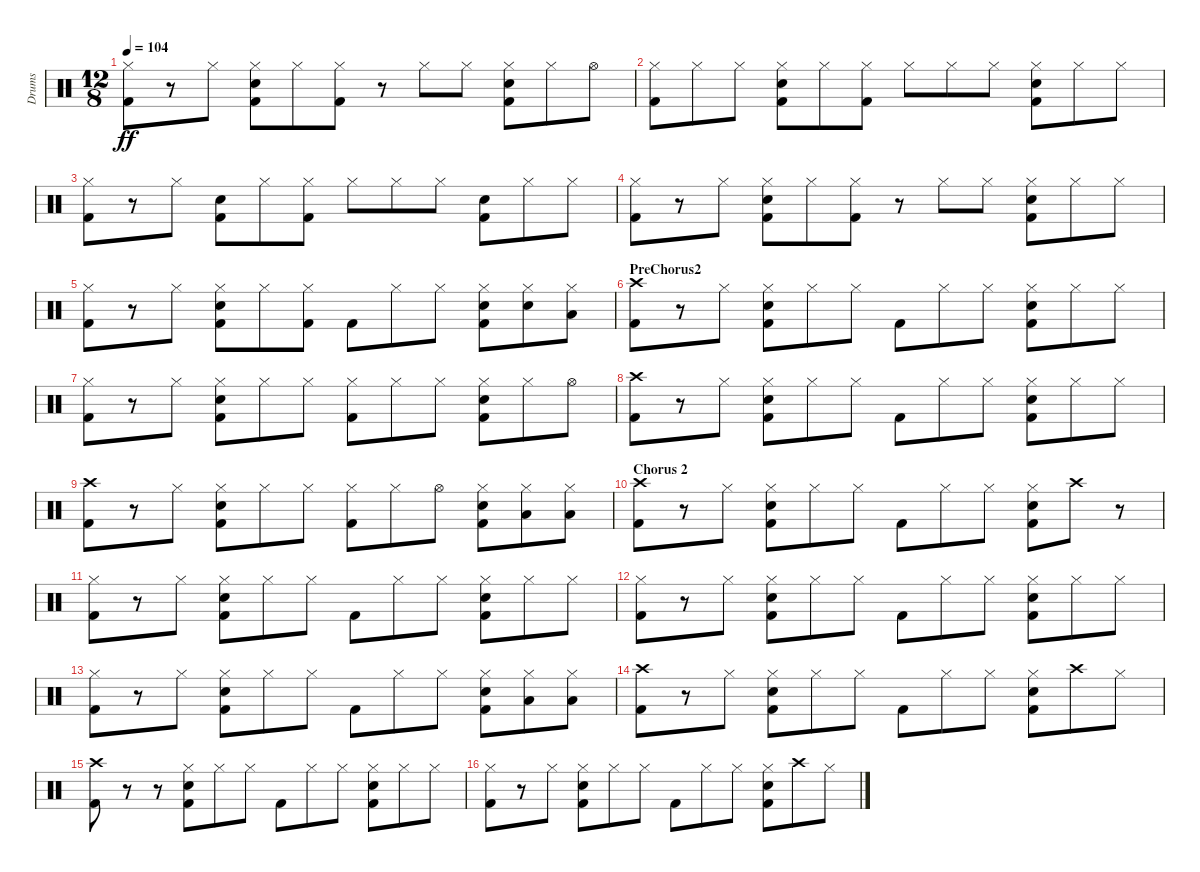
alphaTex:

\track ("Drums" "Drums") {instrument percussion}
\staff {score}
\articulation defaults
\ts (12 8)
\tempo 104
\clef neutral
\ks c
("Hi-Hat (closed)" "Kick (hit) 2").8{dy ff} r.8 "Hi-Hat (closed)".8 ("Hi-Hat (closed)" "Snare (hit) 2" "Kick (hit) 2").8 "Hi-Hat (closed)".8 ("Hi-Hat (closed)" "Kick (hit) 2").8 r.8 "Hi-Hat (closed)".8 "Hi-Hat (closed)".8 ("Hi-Hat (closed)" "Snare (hit) 2" "Kick (hit) 2").8 "Hi-Hat (closed)".8 "Hi-Hat (open)".8 |
("Hi-Hat (closed)" "Kick (hit) 2").8 "Hi-Hat (closed)".8 "Hi-Hat (closed)".8 ("Hi-Hat (closed)" "Snare (hit) 2" "Kick (hit) 2").8 "Hi-Hat (closed)".8 ("Hi-Hat (closed)" "Kick (hit) 2").8 "Hi-Hat (closed)".8 "Hi-Hat (closed)".8 "Hi-Hat (closed)".8 ("Hi-Hat (closed)" "Snare (hit) 2" "Kick (hit) 2").8 "Hi-Hat (closed)".8 "Hi-Hat (closed)".8 |
("Hi-Hat (closed)" "Kick (hit) 2").8 r.8 "Hi-Hat (closed)".8 ("Snare (hit) 2" "Kick (hit) 2").8 "Hi-Hat (closed)".8 ("Hi-Hat (closed)" "Kick (hit) 2").8 "Hi-Hat (closed)".8 "Hi-Hat (closed)".8 "Hi-Hat (closed)".8 ("Snare (hit) 2" "Kick (hit) 2").8 "Hi-Hat (closed)".8 "Hi-Hat (closed)".8 |
("Hi-Hat (closed)" "Kick (hit) 2").8 r.8 "Hi-Hat (closed)".8 ("Hi-Hat (closed)" "Snare (hit) 2" "Kick (hit) 2").8 "Hi-Hat (closed)".8 ("Hi-Hat (closed)" "Kick (hit) 2").8 r.8 "Hi-Hat (closed)".8 "Hi-Hat (closed)".8 ("Hi-Hat (closed)" "Snare (hit) 2" "Kick (hit) 2").8 "Hi-Hat (closed)".8 "Hi-Hat (closed)".8 |
("Hi-Hat (closed)" "Kick (hit) 2").8 r.8 "Hi-Hat (closed)".8 ("Hi-Hat (closed)" "Snare (hit) 2" "Kick (hit) 2").8 "Hi-Hat (closed)".8 ("Hi-Hat (closed)" "Kick (hit) 2").8 "Kick (hit) 2".8 "Hi-Hat (closed)".8 "Hi-Hat (closed)".8 ("Hi-Hat (closed)" "Snare (hit) 2" "Kick (hit) 2").8 ("Hi-Hat (closed)" "Snare (hit) 2").8 ("Hi-Hat (closed)" "Low Tom (hit)").8 |
\section ("" "PreChorus2")
("Crash high (hit)" "Kick (hit) 2").8 r.8 "Hi-Hat (closed)".8 ("Hi-Hat (closed)" "Snare (hit) 2" "Kick (hit) 2").8 "Hi-Hat (closed)".8 "Hi-Hat (closed)".8 "Kick (hit) 2".8 "Hi-Hat (closed)".8 "Hi-Hat (closed)".8 ("Hi-Hat (closed)" "Snare (hit) 2" "Kick (hit) 2").8 "Hi-Hat (closed)".8 "Hi-Hat (closed)".8 |
("Hi-Hat (closed)" "Kick (hit) 2").8 r.8 "Hi-Hat (closed)".8 ("Hi-Hat (closed)" "Snare (hit) 2" "Kick (hit) 2").8 "Hi-Hat (closed)".8 "Hi-Hat (closed)".8 ("Hi-Hat (closed)" "Kick (hit) 2").8 "Hi-Hat (closed)".8 "Hi-Hat (closed)".8 ("Hi-Hat (closed)" "Snare (hit) 2" "Kick (hit) 2").8 "Hi-Hat (closed)".8 "Hi-Hat (open)".8 |
("Crash high (hit)" "Kick (hit) 2").8 r.8 "Hi-Hat (closed)".8 ("Hi-Hat (closed)" "Snare (hit) 2" "Kick (hit) 2").8 "Hi-Hat (closed)".8 "Hi-Hat (closed)".8 "Kick (hit) 2".8 "Hi-Hat (closed)".8 "Hi-Hat (closed)".8 ("Hi-Hat (closed)" "Snare (hit) 2" "Kick (hit) 2").8 "Hi-Hat (closed)".8 "Hi-Hat (closed)".8 |
("Crash high (hit)" "Kick (hit) 2").8 r.8 "Hi-Hat (closed)".8 ("Hi-Hat (closed)" "Snare (hit) 2" "Kick (hit) 2").8 "Hi-Hat (closed)".8 "Hi-Hat (closed)".8 ("Hi-Hat (closed)" "Kick (hit) 2").8 "Hi-Hat (closed)".8 "Hi-Hat (open)".8 ("Hi-Hat (closed)" "Snare (hit) 2" "Kick (hit) 2").8 ("Hi-Hat (closed)" "Low Tom (hit)").8 ("Hi-Hat (closed)" "Low Tom (hit)").8 |
\section ("" "Chorus 2")
("Crash high (hit)" "Kick (hit) 2").8 r.8 "Hi-Hat (closed)".8 ("Hi-Hat (closed)" "Snare (hit) 2" "Kick (hit) 2").8 "Hi-Hat (closed)".8 "Hi-Hat (closed)".8 "Kick (hit) 2".8 "Hi-Hat (closed)".8 "Hi-Hat (closed)".8 ("Hi-Hat (closed)" "Snare (hit) 2" "Kick (hit) 2").8 "Crash high (hit)".8 r.8 |
("Hi-Hat (closed)" "Kick (hit) 2").8 r.8 "Hi-Hat (closed)".8 ("Hi-Hat (closed)" "Snare (hit) 2" "Kick (hit) 2").8 "Hi-Hat (closed)".8 "Hi-Hat (closed)".8 "Kick (hit) 2".8 "Hi-Hat (closed)".8 "Hi-Hat (closed)".8 ("Hi-Hat (closed)" "Snare (hit) 2" "Kick (hit) 2").8 "Hi-Hat (closed)".8 "Hi-Hat (closed)".8 |
("Hi-Hat (closed)" "Kick (hit) 2").8 r.8 "Hi-Hat (closed)".8 ("Hi-Hat (closed)" "Snare (hit) 2" "Kick (hit) 2").8 "Hi-Hat (closed)".8 "Hi-Hat (closed)".8 "Kick (hit) 2".8 "Hi-Hat (closed)".8 "Hi-Hat (closed)".8 ("Hi-Hat (closed)" "Snare (hit) 2" "Kick (hit) 2").8 "Hi-Hat (closed)".8 "Hi-Hat (closed)".8 |
("Hi-Hat (closed)" "Kick (hit) 2").8 r.8 "Hi-Hat (closed)".8 ("Hi-Hat (closed)" "Snare (hit) 2" "Kick (hit) 2").8 "Hi-Hat (closed)".8 "Hi-Hat (closed)".8 "Kick (hit) 2".8 "Hi-Hat (closed)".8 "Hi-Hat (closed)".8 ("Hi-Hat (closed)" "Snare (hit) 2" "Kick (hit) 2").8 ("Hi-Hat (closed)" "Low Tom (hit)").8 ("Hi-Hat (closed)" "Low Tom (hit)").8 |
("Crash high (hit)" "Kick (hit) 2").8 r.8 "Hi-Hat (closed)".8 ("Hi-Hat (closed)" "Snare (hit) 2" "Kick (hit) 2").8 "Hi-Hat (closed)".8 "Hi-Hat (closed)".8 "Kick (hit) 2".8 "Hi-Hat (closed)".8 "Hi-Hat (closed)".8 ("Hi-Hat (closed)" "Snare (hit) 2" "Kick (hit) 2").8 "Crash high (hit)".8 "Hi-Hat (closed)".8 |
("Crash high (hit)" "Kick (hit) 2").8 r.8 r.8 ("Hi-Hat (closed)" "Snare (hit) 2" "Kick (hit) 2").8 "Hi-Hat (closed)".8 "Hi-Hat (closed)".8 "Kick (hit) 2".8 "Hi-Hat (closed)".8 "Hi-Hat (closed)".8 ("Hi-Hat (closed)" "Snare (hit) 2" "Kick (hit) 2").8 "Hi-Hat (closed)".8 "Hi-Hat (closed)".8 |
("Hi-Hat (closed)" "Kick (hit) 2").8 r.8 "Hi-Hat (closed)".8 ("Hi-Hat (closed)" "Snare (hit) 2" "Kick (hit) 2").8 "Hi-Hat (closed)".8 "Hi-Hat (closed)".8 "Kick (hit) 2".8 "Hi-Hat (closed)".8 "Hi-Hat (closed)".8 ("Hi-Hat (closed)" "Snare (hit) 2" "Kick (hit) 2").8 "Crash high (hit)".8 "Hi-Hat (closed)".8
